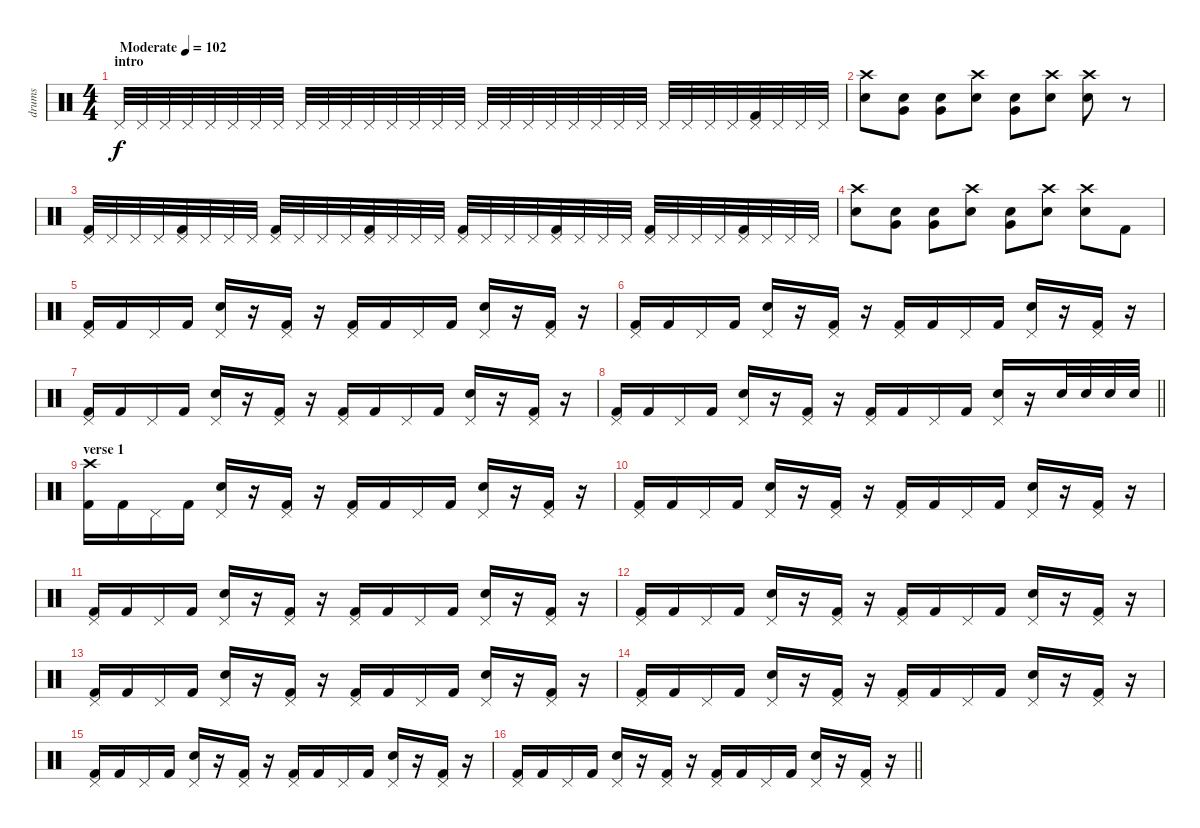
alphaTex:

\track ("drums" "drums") {instrument percussion}
\staff {score}
\articulation defaults
\ts (4 4)
\section ("" "intro")
\tempo (102 "Moderate")
\clef neutral
\ks c "Pedal Hi-Hat (hit)".32{dy f} "Pedal Hi-Hat (hit)".32 "Pedal Hi-Hat (hit)".32 "Pedal Hi-Hat (hit)".32 "Pedal Hi-Hat (hit)".32 "Pedal Hi-Hat (hit)".32 "Pedal Hi-Hat (hit)".32 "Pedal Hi-Hat (hit)".32 "Pedal Hi-Hat (hit)".32 "Pedal Hi-Hat (hit)".32 "Pedal Hi-Hat (hit)".32 "Pedal Hi-Hat (hit)".32 "Pedal Hi-Hat (hit)".32 "Pedal Hi-Hat (hit)".32 "Pedal Hi-Hat (hit)".32 "Pedal Hi-Hat (hit)".32 "Pedal Hi-Hat (hit)".32 "Pedal Hi-Hat (hit)".32 "Pedal Hi-Hat (hit)".32 "Pedal Hi-Hat (hit)".32 "Pedal Hi-Hat (hit)".32 "Pedal Hi-Hat (hit)".32 "Pedal Hi-Hat (hit)".32 "Pedal Hi-Hat (hit)".32 "Pedal Hi-Hat (hit)".32 "Pedal Hi-Hat (hit)".32 "Pedal Hi-Hat (hit)".32 "Pedal Hi-Hat (hit)".32
("Kick (hit) 2" "Pedal Hi-Hat (hit)").32 "Pedal Hi-Hat (hit)".32 "Pedal Hi-Hat (hit)".32 "Pedal Hi-Hat (hit)".32 |
("Electric Snare (hit)" "Crash high (hit)").8 ("Very Low Tom (hit)" "Electric Snare (hit)").8 ("Very Low Tom (hit)" "Electric Snare (hit)").8 ("Electric Snare (hit)" "Crash high (hit)").8 ("Very Low Tom (hit)" "Electric Snare (hit)").8 ("Electric Snare (hit)" "Crash high (hit)").8 ("Electric Snare (hit)" "Crash high (hit)").8 r.8 |
("Kick (hit) 2" "Pedal Hi-Hat (hit)").32 "Pedal Hi-Hat (hit)".32 "Pedal Hi-Hat (hit)".32 "Pedal Hi-Hat (hit)".32 ("Kick (hit) 2" "Pedal Hi-Hat (hit)").32 "Pedal Hi-Hat (hit)".32 "Pedal Hi-Hat (hit)".32 "Pedal Hi-Hat (hit)".32 ("Kick (hit) 2" "Pedal Hi-Hat (hit)").32 "Pedal Hi-Hat (hit)".32 "Pedal Hi-Hat (hit)".32 "Pedal Hi-Hat (hit)".32 ("Kick (hit) 2" "Pedal Hi-Hat (hit)").32 "Pedal Hi-Hat (hit)".32 "Pedal Hi-Hat (hit)".32 "Pedal Hi-Hat (hit)".32 ("Kick (hit) 2" "Pedal Hi-Hat (hit)").32 "Pedal Hi-Hat (hit)".32 "Pedal Hi-Hat (hit)".32 "Pedal Hi-Hat (hit)".32 ("Kick (hit) 2" "Pedal Hi-Hat (hit)").32 "Pedal Hi-Hat (hit)".32 "Pedal Hi-Hat (hit)".32 "Pedal Hi-Hat (hit)".32 ("Kick (hit) 2" "Pedal Hi-Hat (hit)").32 "Pedal Hi-Hat (hit)".32 "Pedal Hi-Hat (hit)".32 "Pedal Hi-Hat (hit)".32 ("Kick (hit) 2" "Pedal Hi-Hat (hit)").32 "Pedal Hi-Hat (hit)".32 "Pedal Hi-Hat (hit)".32 "Pedal Hi-Hat (hit)".32 |
("Electric Snare (hit)" "Crash high (hit)").8 ("Very Low Tom (hit)" "Electric Snare (hit)").8 ("Very Low Tom (hit)" "Electric Snare (hit)").8 ("Electric Snare (hit)" "Crash high (hit)").8 ("Very Low Tom (hit)" "Electric Snare (hit)").8 ("Electric Snare (hit)" "Crash high (hit)").8 ("Electric Snare (hit)" "Crash high (hit)").8 "Kick (hit) 2".8 |
("Kick (hit) 2" "Pedal Hi-Hat (hit)").16 "Kick (hit) 2".16 "Pedal Hi-Hat (hit)".16 "Kick (hit) 2".16 ("Electric Snare (hit)" "Pedal Hi-Hat (hit)").16 r.16 ("Kick (hit) 2" "Pedal Hi-Hat (hit)").16 r.16 ("Kick (hit) 2" "Pedal Hi-Hat (hit)").16 "Kick (hit) 2".16 "Pedal Hi-Hat (hit)".16 "Kick (hit) 2".16 ("Electric Snare (hit)" "Pedal Hi-Hat (hit)").16 r.16 ("Kick (hit) 2" "Pedal Hi-Hat (hit)").16 r.16 |
("Kick (hit) 2" "Pedal Hi-Hat (hit)").16 "Kick (hit) 2".16 "Pedal Hi-Hat (hit)".16 "Kick (hit) 2".16 ("Electric Snare (hit)" "Pedal Hi-Hat (hit)").16 r.16 ("Kick (hit) 2" "Pedal Hi-Hat (hit)").16 r.16 ("Kick (hit) 2" "Pedal Hi-Hat (hit)").16 "Kick (hit) 2".16 "Pedal Hi-Hat (hit)".16 "Kick (hit) 2".16 ("Electric Snare (hit)" "Pedal Hi-Hat (hit)").16 r.16 ("Kick (hit) 2" "Pedal Hi-Hat (hit)").16 r.16 |
("Kick (hit) 2" "Pedal Hi-Hat (hit)").16 "Kick (hit) 2".16 "Pedal Hi-Hat (hit)".16 "Kick (hit) 2".16 ("Electric Snare (hit)" "Pedal Hi-Hat (hit)").16 r.16 ("Kick (hit) 2" "Pedal Hi-Hat (hit)").16 r.16 ("Kick (hit) 2" "Pedal Hi-Hat (hit)").16 "Kick (hit) 2".16 "Pedal Hi-Hat (hit)".16 "Kick (hit) 2".16 ("Electric Snare (hit)" "Pedal Hi-Hat (hit)").16 r.16 ("Kick (hit) 2" "Pedal Hi-Hat (hit)").16 r.16 |
\barLineRight lightlight
("Kick (hit) 2" "Pedal Hi-Hat (hit)").16 "Kick (hit) 2".16 "Pedal Hi-Hat (hit)".16 "Kick (hit) 2".16 ("Electric Snare (hit)" "Pedal Hi-Hat (hit)").16 r.16 ("Kick (hit) 2" "Pedal Hi-Hat (hit)").16 r.16 ("Kick (hit) 2" "Pedal Hi-Hat (hit)").16 "Kick (hit) 2".16 "Pedal Hi-Hat (hit)".16 "Kick (hit) 2".16 ("Electric Snare (hit)" "Pedal Hi-Hat (hit)").16 r.16 "Electric Snare (hit)".32 "Electric Snare (hit)".32 "Electric Snare (hit)".32 "Electric Snare (hit)".32 |
\section ("" "verse 1")
("Kick (hit) 2" "Crash high (hit)").16 "Kick (hit) 2".16 "Pedal Hi-Hat (hit)".16 "Kick (hit) 2".16 ("Electric Snare (hit)" "Pedal Hi-Hat (hit)").16 r.16 ("Kick (hit) 2" "Pedal Hi-Hat (hit)").16 r.16 ("Kick (hit) 2" "Pedal Hi-Hat (hit)").16 "Kick (hit) 2".16 "Pedal Hi-Hat (hit)".16 "Kick (hit) 2".16 ("Electric Snare (hit)" "Pedal Hi-Hat (hit)").16 r.16 ("Kick (hit) 2" "Pedal Hi-Hat (hit)").16 r.16 |
("Kick (hit) 2" "Pedal Hi-Hat (hit)").16 "Kick (hit) 2".16 "Pedal Hi-Hat (hit)".16 "Kick (hit) 2".16 ("Electric Snare (hit)" "Pedal Hi-Hat (hit)").16 r.16 ("Kick (hit) 2" "Pedal Hi-Hat (hit)").16 r.16 ("Kick (hit) 2" "Pedal Hi-Hat (hit)").16 "Kick (hit) 2".16 "Pedal Hi-Hat (hit)".16 "Kick (hit) 2".16 ("Electric Snare (hit)" "Pedal Hi-Hat (hit)").16 r.16 ("Kick (hit) 2" "Pedal Hi-Hat (hit)").16 r.16 |
("Kick (hit) 2" "Pedal Hi-Hat (hit)").16 "Kick (hit) 2".16 "Pedal Hi-Hat (hit)".16 "Kick (hit) 2".16 ("Electric Snare (hit)" "Pedal Hi-Hat (hit)").16 r.16 ("Kick (hit) 2" "Pedal Hi-Hat (hit)").16 r.16 ("Kick (hit) 2" "Pedal Hi-Hat (hit)").16 "Kick (hit) 2".16 "Pedal Hi-Hat (hit)".16 "Kick (hit) 2".16 ("Electric Snare (hit)" "Pedal Hi-Hat (hit)").16 r.16 ("Kick (hit) 2" "Pedal Hi-Hat (hit)").16 r.16 |
("Kick (hit) 2" "Pedal Hi-Hat (hit)").16 "Kick (hit) 2".16 "Pedal Hi-Hat (hit)".16 "Kick (hit) 2".16 ("Electric Snare (hit)" "Pedal Hi-Hat (hit)").16 r.16 ("Kick (hit) 2" "Pedal Hi-Hat (hit)").16 r.16 ("Kick (hit) 2" "Pedal Hi-Hat (hit)").16 "Kick (hit) 2".16 "Pedal Hi-Hat (hit)".16 "Kick (hit) 2".16 ("Electric Snare (hit)" "Pedal Hi-Hat (hit)").16 r.16 ("Kick (hit) 2" "Pedal Hi-Hat (hit)").16 r.16 |
("Kick (hit) 2" "Pedal Hi-Hat (hit)").16 "Kick (hit) 2".16 "Pedal Hi-Hat (hit)".16 "Kick (hit) 2".16 ("Electric Snare (hit)" "Pedal Hi-Hat (hit)").16 r.16 ("Kick (hit) 2" "Pedal Hi-Hat (hit)").16 r.16 ("Kick (hit) 2" "Pedal Hi-Hat (hit)").16 "Kick (hit) 2".16 "Pedal Hi-Hat (hit)".16 "Kick (hit) 2".16 ("Electric Snare (hit)" "Pedal Hi-Hat (hit)").16 r.16 ("Kick (hit) 2" "Pedal Hi-Hat (hit)").16 r.16 |
("Kick (hit) 2" "Pedal Hi-Hat (hit)").16 "Kick (hit) 2".16 "Pedal Hi-Hat (hit)".16 "Kick (hit) 2".16 ("Electric Snare (hit)" "Pedal Hi-Hat (hit)").16 r.16 ("Kick (hit) 2" "Pedal Hi-Hat (hit)").16 r.16 ("Kick (hit) 2" "Pedal Hi-Hat (hit)").16 "Kick (hit) 2".16 "Pedal Hi-Hat (hit)".16 "Kick (hit) 2".16 ("Electric Snare (hit)" "Pedal Hi-Hat (hit)").16 r.16 ("Kick (hit) 2" "Pedal Hi-Hat (hit)").16 r.16 |
("Kick (hit) 2" "Pedal Hi-Hat (hit)").16 "Kick (hit) 2".16 "Pedal Hi-Hat (hit)".16 "Kick (hit) 2".16 ("Electric Snare (hit)" "Pedal Hi-Hat (hit)").16 r.16 ("Kick (hit) 2" "Pedal Hi-Hat (hit)").16 r.16 ("Kick (hit) 2" "Pedal Hi-Hat (hit)").16 "Kick (hit) 2".16 "Pedal Hi-Hat (hit)".16 "Kick (hit) 2".16 ("Electric Snare (hit)" "Pedal Hi-Hat (hit)").16 r.16 ("Kick (hit) 2" "Pedal Hi-Hat (hit)").16 r.16 |
\barLineRight lightlight
("Kick (hit) 2" "Pedal Hi-Hat (hit)").16 "Kick (hit) 2".16 "Pedal Hi-Hat (hit)".16 "Kick (hit) 2".16 ("Electric Snare (hit)" "Pedal Hi-Hat (hit)").16 r.16 ("Kick (hit) 2" "Pedal Hi-Hat (hit)").16 r.16 ("Kick (hit) 2" "Pedal Hi-Hat (hit)").16 "Kick (hit) 2".16 "Pedal Hi-Hat (hit)".16 "Kick (hit) 2".16 ("Electric Snare (hit)" "Pedal Hi-Hat (hit)").16 r.16 ("Kick (hit) 2" "Pedal Hi-Hat (hit)").16 r.16
